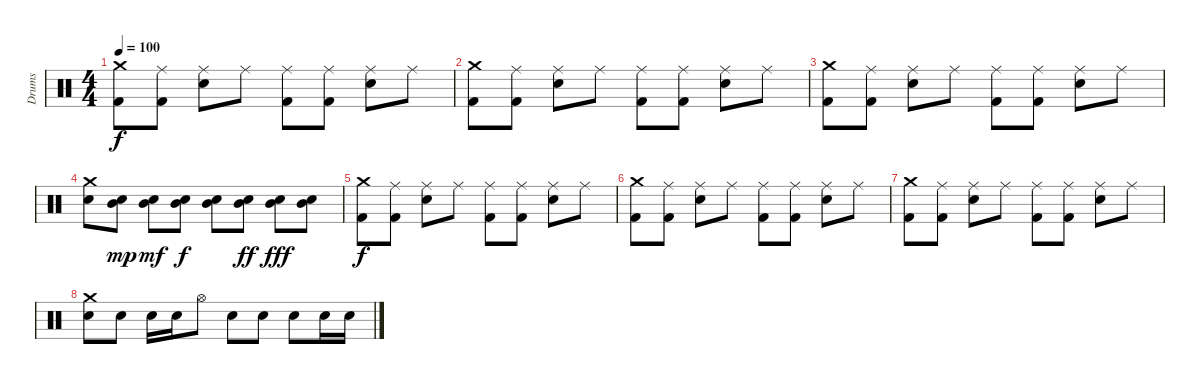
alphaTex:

\track ("Drums" "Drums") {instrument percussion}
\staff {score}
\articulation defaults
\ts (4 4)
\tempo 100
\clef neutral
\ks c
("Crash medium (hit)" "Kick (hit) 2").8{dy f} ("Ride (middle)" "Kick (hit) 2").8 ("Ride (middle)" "Electric Snare (hit)").8 "Ride (middle)".8 ("Ride (middle)" "Kick (hit) 2").8 ("Ride (middle)" "Kick (hit) 2").8 ("Ride (middle)" "Electric Snare (hit)").8 "Ride (middle)".8 |
("Crash medium (hit)" "Kick (hit) 2").8 ("Ride (middle)" "Kick (hit) 2").8 ("Ride (middle)" "Electric Snare (hit)").8 "Ride (middle)".8 ("Ride (middle)" "Kick (hit) 2").8 ("Ride (middle)" "Kick (hit) 2").8 ("Ride (middle)" "Electric Snare (hit)").8 "Ride (middle)".8 |
("Crash medium (hit)" "Kick (hit) 2").8 ("Ride (middle)" "Kick (hit) 2").8 ("Ride (middle)" "Electric Snare (hit)").8 "Ride (middle)".8 ("Ride (middle)" "Kick (hit) 2").8 ("Ride (middle)" "Kick (hit) 2").8 ("Ride (middle)" "Electric Snare (hit)").8 "Ride (middle)".8 |
("Crash medium (hit)" "Electric Snare (hit)").8 ("Electric Snare (hit)" "Mid Tom (hit)").8{dy mp} ("Electric Snare (hit)" "Mid Tom (hit)").8{dy mf} ("Electric Snare (hit)" "Mid Tom (hit)").8{dy f} ("Electric Snare (hit)" "Mid Tom (hit)").8 ("Electric Snare (hit)" "Mid Tom (hit)").8{dy ff} ("Electric Snare (hit)" "Mid Tom (hit)").8{dy fff} ("Electric Snare (hit)" "Mid Tom (hit)").8 |
("Crash medium (hit)" "Kick (hit) 2").8{dy f} ("Ride (middle)" "Kick (hit) 2").8 ("Ride (middle)" "Electric Snare (hit)").8 "Ride (middle)".8 ("Ride (middle)" "Kick (hit) 2").8 ("Ride (middle)" "Kick (hit) 2").8 ("Ride (middle)" "Electric Snare (hit)").8 "Ride (middle)".8 |
("Crash medium (hit)" "Kick (hit) 2").8 ("Ride (middle)" "Kick (hit) 2").8 ("Ride (middle)" "Electric Snare (hit)").8 "Ride (middle)".8 ("Ride (middle)" "Kick (hit) 2").8 ("Ride (middle)" "Kick (hit) 2").8 ("Ride (middle)" "Electric Snare (hit)").8 "Ride (middle)".8 |
("Crash medium (hit)" "Kick (hit) 2").8 ("Ride (middle)" "Kick (hit) 2").8 ("Ride (middle)" "Electric Snare (hit)").8 "Ride (middle)".8 ("Ride (middle)" "Kick (hit) 2").8 ("Ride (middle)" "Kick (hit) 2").8 ("Ride (middle)" "Electric Snare (hit)").8 "Ride (middle)".8 |
("Crash medium (hit)" "Electric Snare (hit)").8 "Electric Snare (hit)".8 "Electric Snare (hit)".16 "Electric Snare (hit)".16 "Hi-Hat (open)".8 "Electric Snare (hit)".8 "Electric Snare (hit)".8 "Electric Snare (hit)".8 "Electric Snare (hit)".16 "Electric Snare (hit)".16
